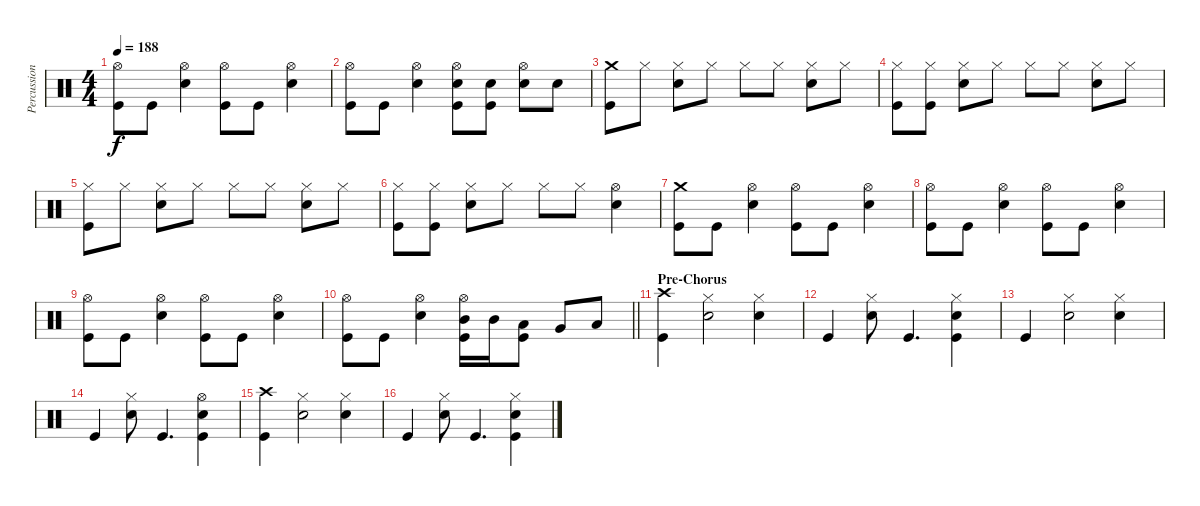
\track ("Percussion" "Percussion") {instrument percussion}
\staff {score}
\articulation defaults
\ts (4 4)
\tempo 188
\clef neutral
\ks c
("Hi-Hat (open)" "Kick (hit)").8{dy f} "Kick (hit)".8 ("Hi-Hat (open)" "Electric Snare (hit)").4 ("Hi-Hat (open)" "Kick (hit)").8 "Kick (hit)".8 ("Hi-Hat (open)" "Electric Snare (hit)").4 |
("Hi-Hat (open)" "Kick (hit)").8 "Kick (hit)".8 ("Hi-Hat (open)" "Electric Snare (hit)").4 ("Hi-Hat (open)" "Electric Snare (hit)" "Kick (hit)").8 ("Electric Snare (hit)" "Kick (hit)").8 ("Hi-Hat (open)" "Electric Snare (hit)").8 "Electric Snare (hit)".8 |
("Crash medium (hit)" "Kick (hit)").8 "Hi-Hat (closed)".8 ("Hi-Hat (closed)" "Electric Snare (hit)").8 "Hi-Hat (closed)".8 "Hi-Hat (closed)".8 "Hi-Hat (closed)".8 ("Hi-Hat (closed)" "Electric Snare (hit)").8 "Hi-Hat (closed)".8 |
("Hi-Hat (closed)" "Kick (hit)").8 ("Hi-Hat (closed)" "Kick (hit)").8 ("Hi-Hat (closed)" "Electric Snare (hit)").8 "Hi-Hat (closed)".8 "Hi-Hat (closed)".8 "Hi-Hat (closed)".8 ("Hi-Hat (closed)" "Electric Snare (hit)").8 "Hi-Hat (closed)".8 |
("Hi-Hat (closed)" "Kick (hit)").8 "Hi-Hat (closed)".8 ("Hi-Hat (closed)" "Electric Snare (hit)").8 "Hi-Hat (closed)".8 "Hi-Hat (closed)".8 "Hi-Hat (closed)".8 ("Hi-Hat (closed)" "Electric Snare (hit)").8 "Hi-Hat (closed)".8 |
("Hi-Hat (closed)" "Kick (hit)").8 ("Hi-Hat (closed)" "Kick (hit)").8 ("Hi-Hat (closed)" "Electric Snare (hit)").8 "Hi-Hat (closed)".8 "Hi-Hat (closed)".8 "Hi-Hat (closed)".8 ("Hi-Hat (open)" "Electric Snare (hit)").4 |
("Crash medium (hit)" "Kick (hit)").8 "Kick (hit)".8 ("Hi-Hat (open)" "Electric Snare (hit)").4 ("Hi-Hat (open)" "Kick (hit)").8 "Kick (hit)".8 ("Hi-Hat (open)" "Electric Snare (hit)").4 |
("Hi-Hat (open)" "Kick (hit)").8 "Kick (hit)".8 ("Hi-Hat (open)" "Electric Snare (hit)").4 ("Hi-Hat (open)" "Kick (hit)").8 "Kick (hit)".8 ("Hi-Hat (open)" "Electric Snare (hit)").4 |
("Hi-Hat (open)" "Kick (hit)").8 "Kick (hit)".8 ("Hi-Hat (open)" "Electric Snare (hit)").4 ("Hi-Hat (open)" "Kick (hit)").8 "Kick (hit)".8 ("Hi-Hat (open)" "Electric Snare (hit)").4 |
\barLineRight lightlight
("Hi-Hat (open)" "Kick (hit)").8 "Kick (hit)".8 ("Hi-Hat (open)" "Electric Snare (hit)").4 ("Hi-Hat (open)" "Mid Tom (hit)" "Kick (hit)").16 "Mid Tom (hit)".16 ("Low Tom (hit)" "Kick (hit)").8 "Very Low Tom (hit)".8 "Low Floor Tom (hit)".8 |
\section ("" "Pre-Chorus")
("Crash high (hit)" "Kick (hit)").4 ("Hi-Hat (closed)" "Electric Snare (hit)").2 ("Hi-Hat (closed)" "Electric Snare (hit)").4 |
"Kick (hit)".4 ("Hi-Hat (closed)" "Electric Snare (hit)").8 "Kick (hit)".4{d} ("Hi-Hat (closed)" "Electric Snare (hit)" "Kick (hit)").4 |
"Kick (hit)".4 ("Hi-Hat (closed)" "Electric Snare (hit)").2 ("Hi-Hat (closed)" "Electric Snare (hit)").4 |
"Kick (hit)".4 ("Hi-Hat (closed)" "Electric Snare (hit)").8 "Kick (hit)".4{d} ("Hi-Hat (open)" "Electric Snare (hit)" "Kick (hit)").4 |
("Crash high (hit)" "Kick (hit)").4 ("Hi-Hat (closed)" "Electric Snare (hit)").2 ("Hi-Hat (closed)" "Electric Snare (hit)").4 |
"Kick (hit)".4 ("Hi-Hat (closed)" "Electric Snare (hit)").8 "Kick (hit)".4{d} ("Hi-Hat (closed)" "Electric Snare (hit)" "Kick (hit)").4
